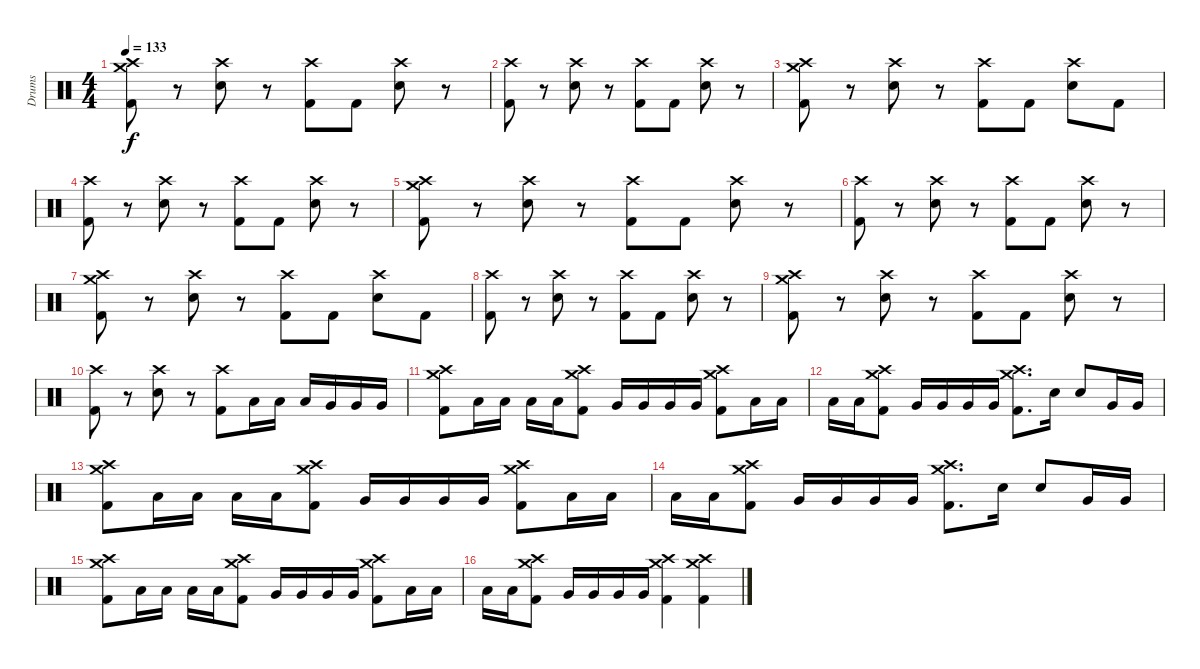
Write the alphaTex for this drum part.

\track ("Drums" "Drums") {instrument percussion}
\staff {score}
\articulation defaults
\ts (4 4)
\tempo 133
\clef neutral
\ks c
("Crash high (hit)" "Crash medium (hit)" "Kick (hit) 2").8{dy f} r.8 ("Crash high (hit)" "Electric Snare (hit)").8 r.8 ("Crash high (hit)" "Kick (hit) 2").8 "Kick (hit) 2".8 ("Crash high (hit)" "Electric Snare (hit)").8 r.8 |
("Crash high (hit)" "Kick (hit) 2").8 r.8 ("Crash high (hit)" "Electric Snare (hit)").8 r.8 ("Crash high (hit)" "Kick (hit) 2").8 "Kick (hit) 2".8 ("Crash high (hit)" "Electric Snare (hit)").8 r.8 |
("Crash high (hit)" "Crash medium (hit)" "Kick (hit) 2").8 r.8 ("Crash high (hit)" "Electric Snare (hit)").8 r.8 ("Crash high (hit)" "Kick (hit) 2").8 "Kick (hit) 2".8 ("Crash high (hit)" "Electric Snare (hit)").8 "Kick (hit) 2".8 |
("Crash high (hit)" "Kick (hit) 2").8 r.8 ("Crash high (hit)" "Electric Snare (hit)").8 r.8 ("Crash high (hit)" "Kick (hit) 2").8 "Kick (hit) 2".8 ("Crash high (hit)" "Electric Snare (hit)").8 r.8 |
("Crash high (hit)" "Crash medium (hit)" "Kick (hit) 2").8 r.8 ("Crash high (hit)" "Electric Snare (hit)").8 r.8 ("Crash high (hit)" "Kick (hit) 2").8 "Kick (hit) 2".8 ("Crash high (hit)" "Electric Snare (hit)").8 r.8 |
("Crash high (hit)" "Kick (hit) 2").8 r.8 ("Crash high (hit)" "Electric Snare (hit)").8 r.8 ("Crash high (hit)" "Kick (hit) 2").8 "Kick (hit) 2".8 ("Crash high (hit)" "Electric Snare (hit)").8 r.8 |
("Crash high (hit)" "Crash medium (hit)" "Kick (hit) 2").8 r.8 ("Crash high (hit)" "Electric Snare (hit)").8 r.8 ("Crash high (hit)" "Kick (hit) 2").8 "Kick (hit) 2".8 ("Crash high (hit)" "Electric Snare (hit)").8 "Kick (hit) 2".8 |
("Crash high (hit)" "Kick (hit) 2").8 r.8 ("Crash high (hit)" "Electric Snare (hit)").8 r.8 ("Crash high (hit)" "Kick (hit) 2").8 "Kick (hit) 2".8 ("Crash high (hit)" "Electric Snare (hit)").8 r.8 |
("Crash high (hit)" "Crash medium (hit)" "Kick (hit) 2").8 r.8 ("Crash high (hit)" "Electric Snare (hit)").8 r.8 ("Crash high (hit)" "Kick (hit) 2").8 "Kick (hit) 2".8 ("Crash high (hit)" "Electric Snare (hit)").8 r.8 |
("Crash high (hit)" "Kick (hit) 2").8 r.8 ("Crash high (hit)" "Electric Snare (hit)").8 r.8 ("Crash high (hit)" "Kick (hit) 2").8 "Low Tom (hit)".16 "Low Tom (hit)".16 "Low Tom (hit)".16 "Very Low Tom (hit)".16 "Very Low Tom (hit)".16 "Very Low Tom (hit)".16 |
("Crash high (hit)" "Crash medium (hit)" "Kick (hit) 2").8 "Low Tom (hit)".16 "Low Tom (hit)".16 "Low Tom (hit)".16 "Low Tom (hit)".16 ("Crash high (hit)" "Crash medium (hit)" "Kick (hit) 2").8 "Very Low Tom (hit)".16 "Very Low Tom (hit)".16 "Very Low Tom (hit)".16 "Very Low Tom (hit)".16 ("Crash high (hit)" "Crash medium (hit)" "Kick (hit) 2").8 "Low Tom (hit)".16 "Low Tom (hit)".16 |
"Low Tom (hit)".16 "Low Tom (hit)".16 ("Crash high (hit)" "Crash medium (hit)" "Kick (hit) 2").8 "Very Low Tom (hit)".16 "Very Low Tom (hit)".16 "Very Low Tom (hit)".16 "Very Low Tom (hit)".16 ("Crash high (hit)" "Crash medium (hit)" "Kick (hit) 2").8{d} "Electric Snare (hit)".16 "Electric Snare (hit)".8 "Very Low Tom (hit)".16 "Very Low Tom (hit)".16 |
("Crash high (hit)" "Crash medium (hit)" "Kick (hit) 2").8 "Low Tom (hit)".16 "Low Tom (hit)".16 "Low Tom (hit)".16 "Low Tom (hit)".16 ("Crash high (hit)" "Crash medium (hit)" "Kick (hit) 2").8 "Very Low Tom (hit)".16 "Very Low Tom (hit)".16 "Very Low Tom (hit)".16 "Very Low Tom (hit)".16 ("Crash high (hit)" "Crash medium (hit)" "Kick (hit) 2").8 "Low Tom (hit)".16 "Low Tom (hit)".16 |
"Low Tom (hit)".16 "Low Tom (hit)".16 ("Crash high (hit)" "Crash medium (hit)" "Kick (hit) 2").8 "Very Low Tom (hit)".16 "Very Low Tom (hit)".16 "Very Low Tom (hit)".16 "Very Low Tom (hit)".16 ("Crash high (hit)" "Crash medium (hit)" "Kick (hit) 2").8{d} "Electric Snare (hit)".16 "Electric Snare (hit)".8 "Very Low Tom (hit)".16 "Very Low Tom (hit)".16 |
("Crash high (hit)" "Crash medium (hit)" "Kick (hit) 2").8 "Low Tom (hit)".16 "Low Tom (hit)".16 "Low Tom (hit)".16 "Low Tom (hit)".16 ("Crash high (hit)" "Crash medium (hit)" "Kick (hit) 2").8 "Very Low Tom (hit)".16 "Very Low Tom (hit)".16 "Very Low Tom (hit)".16 "Very Low Tom (hit)".16 ("Crash high (hit)" "Crash medium (hit)" "Kick (hit) 2").8 "Low Tom (hit)".16 "Low Tom (hit)".16 |
"Low Tom (hit)".16 "Low Tom (hit)".16 ("Crash high (hit)" "Crash medium (hit)" "Kick (hit) 2").8 "Very Low Tom (hit)".16 "Very Low Tom (hit)".16 "Very Low Tom (hit)".16 "Very Low Tom (hit)".16 ("Crash high (hit)" "Crash medium (hit)" "Kick (hit) 2").4 ("Crash high (hit)" "Crash medium (hit)" "Kick (hit) 2").4
